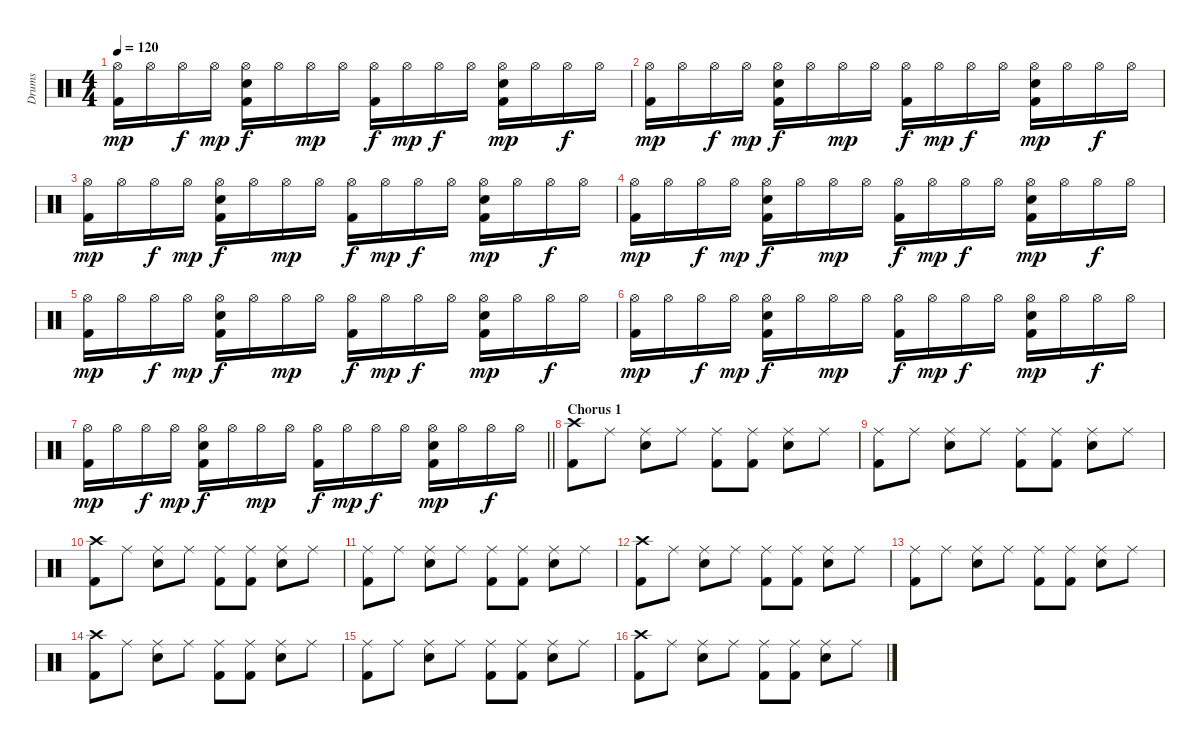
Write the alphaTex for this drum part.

\track ("Drums" "Drums") {instrument percussion}
\staff {score}
\articulation defaults
\ts (4 4)
\tempo 120
\clef neutral
\ks c
("Hi-Hat (open)" "Kick (hit) 2").16{dy mp} "Hi-Hat (open)".16 "Hi-Hat (open)".16{dy f} "Hi-Hat (open)".16{dy mp} ("Hi-Hat (open)" "Snare (hit) 2" "Kick (hit) 2").16{dy f} "Hi-Hat (open)".16 "Hi-Hat (open)".16{dy mp} "Hi-Hat (open)".16 ("Hi-Hat (open)" "Kick (hit) 2").16{dy f} "Hi-Hat (open)".16{dy mp} "Hi-Hat (open)".16{dy f} "Hi-Hat (open)".16 ("Hi-Hat (open)" "Snare (hit) 2" "Kick (hit) 2").16{dy mp} "Hi-Hat (open)".16 "Hi-Hat (open)".16{dy f} "Hi-Hat (open)".16 |
("Hi-Hat (open)" "Kick (hit) 2").16{dy mp} "Hi-Hat (open)".16 "Hi-Hat (open)".16{dy f} "Hi-Hat (open)".16{dy mp} ("Hi-Hat (open)" "Snare (hit) 2" "Kick (hit) 2").16{dy f} "Hi-Hat (open)".16 "Hi-Hat (open)".16{dy mp} "Hi-Hat (open)".16 ("Hi-Hat (open)" "Kick (hit) 2").16{dy f} "Hi-Hat (open)".16{dy mp} "Hi-Hat (open)".16{dy f} "Hi-Hat (open)".16 ("Hi-Hat (open)" "Snare (hit) 2" "Kick (hit) 2").16{dy mp} "Hi-Hat (open)".16 "Hi-Hat (open)".16{dy f} "Hi-Hat (open)".16 |
("Hi-Hat (open)" "Kick (hit) 2").16{dy mp} "Hi-Hat (open)".16 "Hi-Hat (open)".16{dy f} "Hi-Hat (open)".16{dy mp} ("Hi-Hat (open)" "Snare (hit) 2" "Kick (hit) 2").16{dy f} "Hi-Hat (open)".16 "Hi-Hat (open)".16{dy mp} "Hi-Hat (open)".16 ("Hi-Hat (open)" "Kick (hit) 2").16{dy f} "Hi-Hat (open)".16{dy mp} "Hi-Hat (open)".16{dy f} "Hi-Hat (open)".16 ("Hi-Hat (open)" "Snare (hit) 2" "Kick (hit) 2").16{dy mp} "Hi-Hat (open)".16 "Hi-Hat (open)".16{dy f} "Hi-Hat (open)".16 |
("Hi-Hat (open)" "Kick (hit) 2").16{dy mp} "Hi-Hat (open)".16 "Hi-Hat (open)".16{dy f} "Hi-Hat (open)".16{dy mp} ("Hi-Hat (open)" "Snare (hit) 2" "Kick (hit) 2").16{dy f} "Hi-Hat (open)".16 "Hi-Hat (open)".16{dy mp} "Hi-Hat (open)".16 ("Hi-Hat (open)" "Kick (hit) 2").16{dy f} "Hi-Hat (open)".16{dy mp} "Hi-Hat (open)".16{dy f} "Hi-Hat (open)".16 ("Hi-Hat (open)" "Snare (hit) 2" "Kick (hit) 2").16{dy mp} "Hi-Hat (open)".16 "Hi-Hat (open)".16{dy f} "Hi-Hat (open)".16 |
("Hi-Hat (open)" "Kick (hit) 2").16{dy mp} "Hi-Hat (open)".16 "Hi-Hat (open)".16{dy f} "Hi-Hat (open)".16{dy mp} ("Hi-Hat (open)" "Snare (hit) 2" "Kick (hit) 2").16{dy f} "Hi-Hat (open)".16 "Hi-Hat (open)".16{dy mp} "Hi-Hat (open)".16 ("Hi-Hat (open)" "Kick (hit) 2").16{dy f} "Hi-Hat (open)".16{dy mp} "Hi-Hat (open)".16{dy f} "Hi-Hat (open)".16 ("Hi-Hat (open)" "Snare (hit) 2" "Kick (hit) 2").16{dy mp} "Hi-Hat (open)".16 "Hi-Hat (open)".16{dy f} "Hi-Hat (open)".16 |
("Hi-Hat (open)" "Kick (hit) 2").16{dy mp} "Hi-Hat (open)".16 "Hi-Hat (open)".16{dy f} "Hi-Hat (open)".16{dy mp} ("Hi-Hat (open)" "Snare (hit) 2" "Kick (hit) 2").16{dy f} "Hi-Hat (open)".16 "Hi-Hat (open)".16{dy mp} "Hi-Hat (open)".16 ("Hi-Hat (open)" "Kick (hit) 2").16{dy f} "Hi-Hat (open)".16{dy mp} "Hi-Hat (open)".16{dy f} "Hi-Hat (open)".16 ("Hi-Hat (open)" "Snare (hit) 2" "Kick (hit) 2").16{dy mp} "Hi-Hat (open)".16 "Hi-Hat (open)".16{dy f} "Hi-Hat (open)".16 |
\barLineRight lightlight
("Hi-Hat (open)" "Kick (hit) 2").16{dy mp} "Hi-Hat (open)".16 "Hi-Hat (open)".16{dy f} "Hi-Hat (open)".16{dy mp} ("Hi-Hat (open)" "Snare (hit) 2" "Kick (hit) 2").16{dy f} "Hi-Hat (open)".16 "Hi-Hat (open)".16{dy mp} "Hi-Hat (open)".16 ("Hi-Hat (open)" "Kick (hit) 2").16{dy f} "Hi-Hat (open)".16{dy mp} "Hi-Hat (open)".16{dy f} "Hi-Hat (open)".16 ("Hi-Hat (open)" "Snare (hit) 2" "Kick (hit) 2").16{dy mp} "Hi-Hat (open)".16 "Hi-Hat (open)".16{dy f} "Hi-Hat (open)".16 |
\section ("" "Chorus 1")
("Crash high (hit)" "Kick (hit) 2").8 "Ride (middle)".8 ("Ride (middle)" "Snare (hit) 2").8 "Ride (middle)".8 ("Ride (middle)" "Kick (hit) 2").8 ("Ride (middle)" "Kick (hit) 2").8 ("Ride (middle)" "Snare (hit) 2").8 "Ride (middle)".8 |
("Ride (middle)" "Kick (hit) 2").8 "Ride (middle)".8 ("Ride (middle)" "Snare (hit) 2").8 "Ride (middle)".8 ("Ride (middle)" "Kick (hit) 2").8 ("Ride (middle)" "Kick (hit) 2").8 ("Ride (middle)" "Snare (hit) 2").8 "Ride (middle)".8 |
("Crash high (hit)" "Kick (hit) 2").8 "Ride (middle)".8 ("Ride (middle)" "Snare (hit) 2").8 "Ride (middle)".8 ("Ride (middle)" "Kick (hit) 2").8 ("Ride (middle)" "Kick (hit) 2").8 ("Ride (middle)" "Snare (hit) 2").8 "Ride (middle)".8 |
("Ride (middle)" "Kick (hit) 2").8 "Ride (middle)".8 ("Ride (middle)" "Snare (hit) 2").8 "Ride (middle)".8 ("Ride (middle)" "Kick (hit) 2").8 ("Ride (middle)" "Kick (hit) 2").8 ("Ride (middle)" "Snare (hit) 2").8 "Ride (middle)".8 |
("Crash high (hit)" "Kick (hit) 2").8 "Ride (middle)".8 ("Ride (middle)" "Snare (hit) 2").8 "Ride (middle)".8 ("Ride (middle)" "Kick (hit) 2").8 ("Ride (middle)" "Kick (hit) 2").8 ("Ride (middle)" "Snare (hit) 2").8 "Ride (middle)".8 |
("Ride (middle)" "Kick (hit) 2").8 "Ride (middle)".8 ("Ride (middle)" "Snare (hit) 2").8 "Ride (middle)".8 ("Ride (middle)" "Kick (hit) 2").8 ("Ride (middle)" "Kick (hit) 2").8 ("Ride (middle)" "Snare (hit) 2").8 "Ride (middle)".8 |
("Crash high (hit)" "Kick (hit) 2").8 "Ride (middle)".8 ("Ride (middle)" "Snare (hit) 2").8 "Ride (middle)".8 ("Ride (middle)" "Kick (hit) 2").8 ("Ride (middle)" "Kick (hit) 2").8 ("Ride (middle)" "Snare (hit) 2").8 "Ride (middle)".8 |
("Ride (middle)" "Kick (hit) 2").8 "Ride (middle)".8 ("Ride (middle)" "Snare (hit) 2").8 "Ride (middle)".8 ("Ride (middle)" "Kick (hit) 2").8 ("Ride (middle)" "Kick (hit) 2").8 ("Ride (middle)" "Snare (hit) 2").8 "Ride (middle)".8 |
("Crash high (hit)" "Kick (hit) 2").8 "Ride (middle)".8 ("Ride (middle)" "Snare (hit) 2").8 "Ride (middle)".8 ("Ride (middle)" "Kick (hit) 2").8 ("Ride (middle)" "Kick (hit) 2").8 ("Ride (middle)" "Snare (hit) 2").8 "Ride (middle)".8
